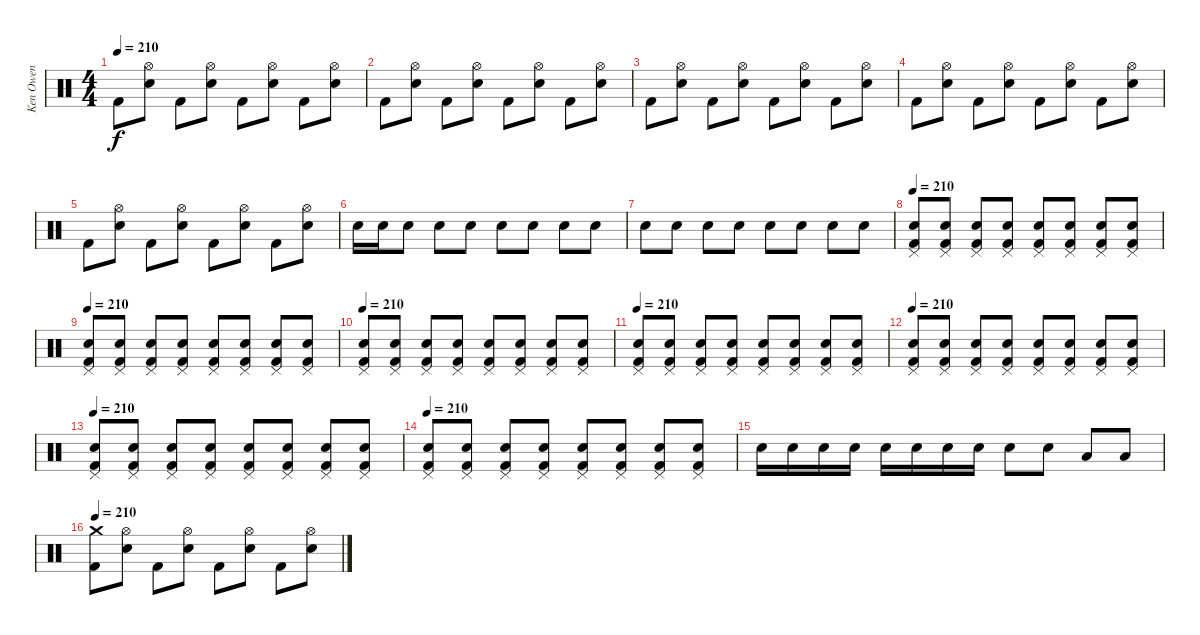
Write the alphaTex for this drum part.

\track ("Ken Owen" "Ken Owen") {instrument percussion}
\staff {score}
\articulation defaults
\ts (4 4)
\tempo 210
\clef neutral
\ks c "Kick (hit) 2".8{dy f}
("Hi-Hat (open)" "Electric Snare (hit)").8 "Kick (hit) 2".8 ("Hi-Hat (open)" "Electric Snare (hit)").8 "Kick (hit) 2".8 ("Hi-Hat (open)" "Electric Snare (hit)").8 "Kick (hit) 2".8 ("Hi-Hat (open)" "Electric Snare (hit)").8 |
"Kick (hit) 2".8 ("Hi-Hat (open)" "Electric Snare (hit)").8 "Kick (hit) 2".8 ("Hi-Hat (open)" "Electric Snare (hit)").8 "Kick (hit) 2".8 ("Hi-Hat (open)" "Electric Snare (hit)").8 "Kick (hit) 2".8 ("Hi-Hat (open)" "Electric Snare (hit)").8 |
"Kick (hit) 2".8 ("Hi-Hat (open)" "Electric Snare (hit)").8 "Kick (hit) 2".8 ("Hi-Hat (open)" "Electric Snare (hit)").8 "Kick (hit) 2".8 ("Hi-Hat (open)" "Electric Snare (hit)").8 "Kick (hit) 2".8 ("Hi-Hat (open)" "Electric Snare (hit)").8 |
"Kick (hit) 2".8 ("Hi-Hat (open)" "Electric Snare (hit)").8 "Kick (hit) 2".8 ("Hi-Hat (open)" "Electric Snare (hit)").8 "Kick (hit) 2".8 ("Hi-Hat (open)" "Electric Snare (hit)").8 "Kick (hit) 2".8 ("Hi-Hat (open)" "Electric Snare (hit)").8 |
"Kick (hit) 2".8 ("Hi-Hat (open)" "Electric Snare (hit)").8 "Kick (hit) 2".8 ("Hi-Hat (open)" "Electric Snare (hit)").8 "Kick (hit) 2".8 ("Hi-Hat (open)" "Electric Snare (hit)").8 "Kick (hit) 2".8 ("Hi-Hat (open)" "Electric Snare (hit)").8 |
"Electric Snare (hit)".16 "Electric Snare (hit)".16 "Electric Snare (hit)".8 "Electric Snare (hit)".8 "Electric Snare (hit)".8 "Electric Snare (hit)".8 "Electric Snare (hit)".8 "Electric Snare (hit)".8 "Electric Snare (hit)".8 |
"Electric Snare (hit)".8 "Electric Snare (hit)".8 "Electric Snare (hit)".8 "Electric Snare (hit)".8 "Electric Snare (hit)".8 "Electric Snare (hit)".8 "Electric Snare (hit)".8 "Electric Snare (hit)".8 |
\tempo 210
("Pedal Hi-Hat (hit)" "Electric Snare (hit)" "Kick (hit) 2").8 ("Pedal Hi-Hat (hit)" "Electric Snare (hit)" "Kick (hit) 2").8 ("Pedal Hi-Hat (hit)" "Electric Snare (hit)" "Kick (hit) 2").8 ("Pedal Hi-Hat (hit)" "Electric Snare (hit)" "Kick (hit) 2").8 ("Pedal Hi-Hat (hit)" "Electric Snare (hit)" "Kick (hit) 2").8 ("Pedal Hi-Hat (hit)" "Electric Snare (hit)" "Kick (hit) 2").8 ("Pedal Hi-Hat (hit)" "Electric Snare (hit)" "Kick (hit) 2").8 ("Pedal Hi-Hat (hit)" "Electric Snare (hit)" "Kick (hit) 2").8 |
\tempo 210
("Pedal Hi-Hat (hit)" "Electric Snare (hit)" "Kick (hit) 2").8 ("Pedal Hi-Hat (hit)" "Electric Snare (hit)" "Kick (hit) 2").8 ("Pedal Hi-Hat (hit)" "Electric Snare (hit)" "Kick (hit) 2").8 ("Pedal Hi-Hat (hit)" "Electric Snare (hit)" "Kick (hit) 2").8 ("Pedal Hi-Hat (hit)" "Electric Snare (hit)" "Kick (hit) 2").8 ("Pedal Hi-Hat (hit)" "Electric Snare (hit)" "Kick (hit) 2").8 ("Pedal Hi-Hat (hit)" "Electric Snare (hit)" "Kick (hit) 2").8 ("Pedal Hi-Hat (hit)" "Electric Snare (hit)" "Kick (hit) 2").8 |
\tempo 210
("Pedal Hi-Hat (hit)" "Electric Snare (hit)" "Kick (hit) 2").8 ("Pedal Hi-Hat (hit)" "Electric Snare (hit)" "Kick (hit) 2").8 ("Pedal Hi-Hat (hit)" "Electric Snare (hit)" "Kick (hit) 2").8 ("Pedal Hi-Hat (hit)" "Electric Snare (hit)" "Kick (hit) 2").8 ("Pedal Hi-Hat (hit)" "Electric Snare (hit)" "Kick (hit) 2").8 ("Pedal Hi-Hat (hit)" "Electric Snare (hit)" "Kick (hit) 2").8 ("Pedal Hi-Hat (hit)" "Electric Snare (hit)" "Kick (hit) 2").8 ("Pedal Hi-Hat (hit)" "Electric Snare (hit)" "Kick (hit) 2").8 |
\tempo 210
("Pedal Hi-Hat (hit)" "Electric Snare (hit)" "Kick (hit) 2").8 ("Pedal Hi-Hat (hit)" "Electric Snare (hit)" "Kick (hit) 2").8 ("Pedal Hi-Hat (hit)" "Electric Snare (hit)" "Kick (hit) 2").8 ("Pedal Hi-Hat (hit)" "Electric Snare (hit)" "Kick (hit) 2").8 ("Pedal Hi-Hat (hit)" "Electric Snare (hit)" "Kick (hit) 2").8 ("Pedal Hi-Hat (hit)" "Electric Snare (hit)" "Kick (hit) 2").8 ("Pedal Hi-Hat (hit)" "Electric Snare (hit)" "Kick (hit) 2").8 ("Pedal Hi-Hat (hit)" "Electric Snare (hit)" "Kick (hit) 2").8 |
\tempo 210
("Pedal Hi-Hat (hit)" "Electric Snare (hit)" "Kick (hit) 2").8 ("Pedal Hi-Hat (hit)" "Electric Snare (hit)" "Kick (hit) 2").8 ("Pedal Hi-Hat (hit)" "Electric Snare (hit)" "Kick (hit) 2").8 ("Pedal Hi-Hat (hit)" "Electric Snare (hit)" "Kick (hit) 2").8 ("Pedal Hi-Hat (hit)" "Electric Snare (hit)" "Kick (hit) 2").8 ("Pedal Hi-Hat (hit)" "Electric Snare (hit)" "Kick (hit) 2").8 ("Pedal Hi-Hat (hit)" "Electric Snare (hit)" "Kick (hit) 2").8 ("Pedal Hi-Hat (hit)" "Electric Snare (hit)" "Kick (hit) 2").8 |
\tempo 210
("Pedal Hi-Hat (hit)" "Electric Snare (hit)" "Kick (hit) 2").8 ("Pedal Hi-Hat (hit)" "Electric Snare (hit)" "Kick (hit) 2").8 ("Pedal Hi-Hat (hit)" "Electric Snare (hit)" "Kick (hit) 2").8 ("Pedal Hi-Hat (hit)" "Electric Snare (hit)" "Kick (hit) 2").8 ("Pedal Hi-Hat (hit)" "Electric Snare (hit)" "Kick (hit) 2").8 ("Pedal Hi-Hat (hit)" "Electric Snare (hit)" "Kick (hit) 2").8 ("Pedal Hi-Hat (hit)" "Electric Snare (hit)" "Kick (hit) 2").8 ("Pedal Hi-Hat (hit)" "Electric Snare (hit)" "Kick (hit) 2").8 |
\tempo 210
("Pedal Hi-Hat (hit)" "Electric Snare (hit)" "Kick (hit) 2").8 ("Pedal Hi-Hat (hit)" "Electric Snare (hit)" "Kick (hit) 2").8 ("Pedal Hi-Hat (hit)" "Electric Snare (hit)" "Kick (hit) 2").8 ("Pedal Hi-Hat (hit)" "Electric Snare (hit)" "Kick (hit) 2").8 ("Pedal Hi-Hat (hit)" "Electric Snare (hit)" "Kick (hit) 2").8 ("Pedal Hi-Hat (hit)" "Electric Snare (hit)" "Kick (hit) 2").8 ("Pedal Hi-Hat (hit)" "Electric Snare (hit)" "Kick (hit) 2").8 ("Pedal Hi-Hat (hit)" "Electric Snare (hit)" "Kick (hit) 2").8 |
"Electric Snare (hit)".16 "Electric Snare (hit)".16 "Electric Snare (hit)".16 "Electric Snare (hit)".16 "Electric Snare (hit)".16 "Electric Snare (hit)".16 "Electric Snare (hit)".16 "Electric Snare (hit)".16 "Electric Snare (hit)".8 "Electric Snare (hit)".8 "Low Floor Tom (hit)".8 "Low Floor Tom (hit)".8 |
\tempo 210
("Crash medium (hit)" "Kick (hit) 2").8 ("Hi-Hat (open)" "Electric Snare (hit)").8 "Kick (hit) 2".8 ("Hi-Hat (open)" "Electric Snare (hit)").8 "Kick (hit) 2".8 ("Hi-Hat (open)" "Electric Snare (hit)").8 "Kick (hit) 2".8 ("Hi-Hat (open)" "Electric Snare (hit)").8
